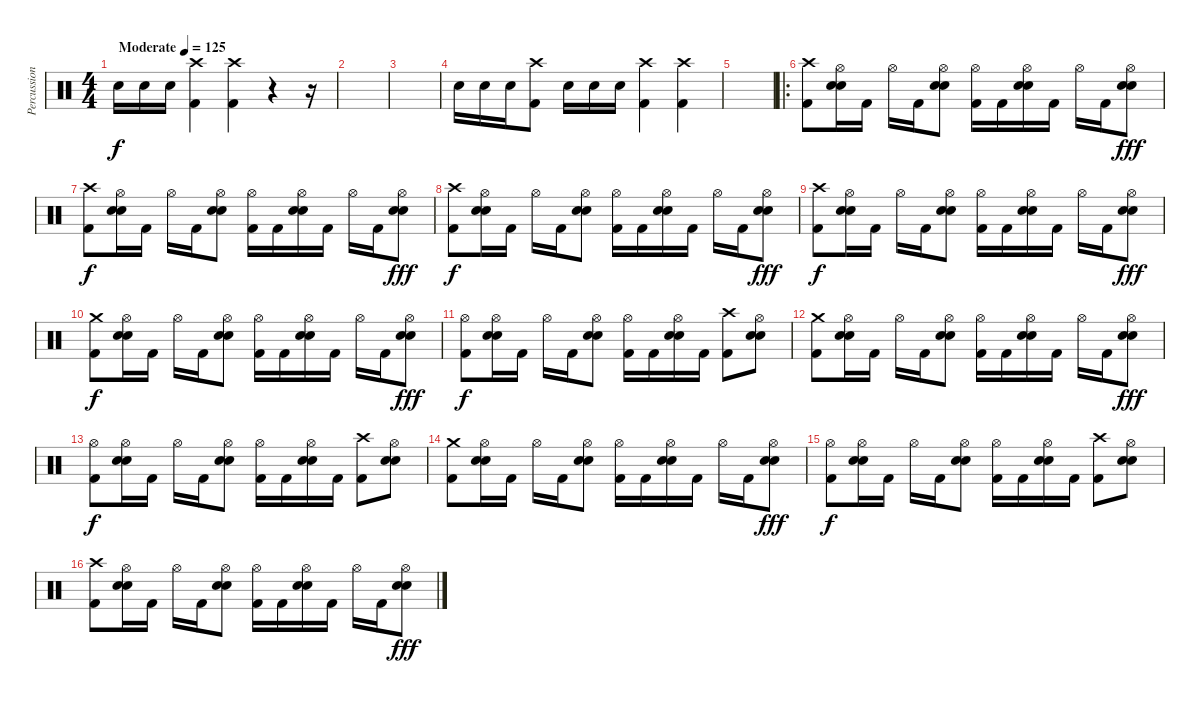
\track ("Percussion" "Percussion") {instrument percussion}
\staff {score}
\articulation defaults
\ts (4 4)
\tempo (125 "Moderate")
\clef neutral
\ks c "Snare (hit) 2".16{dy f} "Snare (hit) 2".16 "Snare (hit) 2".16
("Crash high (hit)" "Kick (hit) 2").4 ("Crash high (hit)" "Kick (hit) 2").4 r.4 r.16 |
|
|
"Snare (hit) 2".16 "Snare (hit) 2".16 "Snare (hit) 2".16 ("Crash high (hit)" "Kick (hit) 2").8 "Snare (hit) 2".16 "Snare (hit) 2".16 "Snare (hit) 2".16 ("Crash high (hit)" "Kick (hit) 2").4 ("Crash high (hit)" "Kick (hit) 2").4 |
|
\ro
("Crash high (hit)" "Kick (hit) 2").8 ("Hi-Hat (open)" "Snare (hit) 2" "Snare (hit) 2").16 "Kick (hit) 2".16 "Hi-Hat (open)".16 "Kick (hit) 2".16 ("Hi-Hat (open)" "Snare (hit) 2" "Snare (hit) 2").8 ("Hi-Hat (open)" "Kick (hit) 2").16 "Kick (hit) 2".16 ("Hi-Hat (open)" "Snare (hit) 2" "Snare (hit) 2").16 "Kick (hit) 2".16 "Hi-Hat (open)".16 "Kick (hit) 2".16 ("Hi-Hat (open)" "Snare (hit) 2" "Snare (hit) 2").8{dy fff} |
("Crash high (hit)" "Kick (hit) 2").8{dy f} ("Hi-Hat (open)" "Snare (hit) 2" "Snare (hit) 2").16 "Kick (hit) 2".16 "Hi-Hat (open)".16 "Kick (hit) 2".16 ("Hi-Hat (open)" "Snare (hit) 2" "Snare (hit) 2").8 ("Hi-Hat (open)" "Kick (hit) 2").16 "Kick (hit) 2".16 ("Hi-Hat (open)" "Snare (hit) 2" "Snare (hit) 2").16 "Kick (hit) 2".16 "Hi-Hat (open)".16 "Kick (hit) 2".16 ("Hi-Hat (open)" "Snare (hit) 2" "Snare (hit) 2").8{dy fff} |
("Crash high (hit)" "Kick (hit) 2").8{dy f} ("Hi-Hat (open)" "Snare (hit) 2" "Snare (hit) 2").16 "Kick (hit) 2".16 "Hi-Hat (open)".16 "Kick (hit) 2".16 ("Hi-Hat (open)" "Snare (hit) 2" "Snare (hit) 2").8 ("Hi-Hat (open)" "Kick (hit) 2").16 "Kick (hit) 2".16 ("Hi-Hat (open)" "Snare (hit) 2" "Snare (hit) 2").16 "Kick (hit) 2".16 "Hi-Hat (open)".16 "Kick (hit) 2".16 ("Hi-Hat (open)" "Snare (hit) 2" "Snare (hit) 2").8{dy fff} |
("Crash high (hit)" "Kick (hit) 2").8{dy f} ("Hi-Hat (open)" "Snare (hit) 2" "Snare (hit) 2").16 "Kick (hit) 2".16 "Hi-Hat (open)".16 "Kick (hit) 2".16 ("Hi-Hat (open)" "Snare (hit) 2" "Snare (hit) 2").8 ("Hi-Hat (open)" "Kick (hit) 2").16 "Kick (hit) 2".16 ("Hi-Hat (open)" "Snare (hit) 2" "Snare (hit) 2").16 "Kick (hit) 2".16 "Hi-Hat (open)".16 "Kick (hit) 2".16 ("Hi-Hat (open)" "Snare (hit) 2" "Snare (hit) 2").8{dy fff} |
("Crash medium (hit)" "Kick (hit) 2").8{dy f} ("Hi-Hat (open)" "Snare (hit) 2" "Snare (hit) 2").16 "Kick (hit) 2".16 "Hi-Hat (open)".16 "Kick (hit) 2".16 ("Hi-Hat (open)" "Snare (hit) 2" "Snare (hit) 2").8 ("Hi-Hat (open)" "Kick (hit) 2").16 "Kick (hit) 2".16 ("Hi-Hat (open)" "Snare (hit) 2" "Snare (hit) 2").16 "Kick (hit) 2".16 "Hi-Hat (open)".16 "Kick (hit) 2".16 ("Hi-Hat (open)" "Snare (hit) 2" "Snare (hit) 2").8{dy fff} |
("Hi-Hat (open)" "Kick (hit) 2").8{dy f} ("Hi-Hat (open)" "Snare (hit) 2" "Snare (hit) 2").16 "Kick (hit) 2".16 "Hi-Hat (open)".16 "Kick (hit) 2".16 ("Hi-Hat (open)" "Snare (hit) 2" "Snare (hit) 2").8 ("Hi-Hat (open)" "Kick (hit) 2").16 "Kick (hit) 2".16 ("Hi-Hat (open)" "Snare (hit) 2" "Snare (hit) 2").16 "Kick (hit) 2".16 ("Crash high (hit)" "Kick (hit) 2").8 ("Hi-Hat (open)" "Snare (hit) 2" "Snare (hit) 2").8 |
("Crash medium (hit)" "Kick (hit) 2").8 ("Hi-Hat (open)" "Snare (hit) 2" "Snare (hit) 2").16 "Kick (hit) 2".16 "Hi-Hat (open)".16 "Kick (hit) 2".16 ("Hi-Hat (open)" "Snare (hit) 2" "Snare (hit) 2").8 ("Hi-Hat (open)" "Kick (hit) 2").16 "Kick (hit) 2".16 ("Hi-Hat (open)" "Snare (hit) 2" "Snare (hit) 2").16 "Kick (hit) 2".16 "Hi-Hat (open)".16 "Kick (hit) 2".16 ("Hi-Hat (open)" "Snare (hit) 2" "Snare (hit) 2").8{dy fff} |
("Hi-Hat (open)" "Kick (hit) 2").8{dy f} ("Hi-Hat (open)" "Snare (hit) 2" "Snare (hit) 2").16 "Kick (hit) 2".16 "Hi-Hat (open)".16 "Kick (hit) 2".16 ("Hi-Hat (open)" "Snare (hit) 2" "Snare (hit) 2").8 ("Hi-Hat (open)" "Kick (hit) 2").16 "Kick (hit) 2".16 ("Hi-Hat (open)" "Snare (hit) 2" "Snare (hit) 2").16 "Kick (hit) 2".16 ("Crash high (hit)" "Kick (hit) 2").8 ("Hi-Hat (open)" "Snare (hit) 2" "Snare (hit) 2").8 |
("Crash medium (hit)" "Kick (hit) 2").8 ("Hi-Hat (open)" "Snare (hit) 2" "Snare (hit) 2").16 "Kick (hit) 2".16 "Hi-Hat (open)".16 "Kick (hit) 2".16 ("Hi-Hat (open)" "Snare (hit) 2" "Snare (hit) 2").8 ("Hi-Hat (open)" "Kick (hit) 2").16 "Kick (hit) 2".16 ("Hi-Hat (open)" "Snare (hit) 2" "Snare (hit) 2").16 "Kick (hit) 2".16 "Hi-Hat (open)".16 "Kick (hit) 2".16 ("Hi-Hat (open)" "Snare (hit) 2" "Snare (hit) 2").8{dy fff} |
("Hi-Hat (open)" "Kick (hit) 2").8{dy f} ("Hi-Hat (open)" "Snare (hit) 2" "Snare (hit) 2").16 "Kick (hit) 2".16 "Hi-Hat (open)".16 "Kick (hit) 2".16 ("Hi-Hat (open)" "Snare (hit) 2" "Snare (hit) 2").8 ("Hi-Hat (open)" "Kick (hit) 2").16 "Kick (hit) 2".16 ("Hi-Hat (open)" "Snare (hit) 2" "Snare (hit) 2").16 "Kick (hit) 2".16 ("Crash high (hit)" "Kick (hit) 2").8 ("Hi-Hat (open)" "Snare (hit) 2" "Snare (hit) 2").8 |
("Crash high (hit)" "Kick (hit) 2").8 ("Hi-Hat (open)" "Snare (hit) 2" "Snare (hit) 2").16 "Kick (hit) 2".16 "Hi-Hat (open)".16 "Kick (hit) 2".16 ("Hi-Hat (open)" "Snare (hit) 2" "Snare (hit) 2").8 ("Hi-Hat (open)" "Kick (hit) 2").16 "Kick (hit) 2".16 ("Hi-Hat (open)" "Snare (hit) 2" "Snare (hit) 2").16 "Kick (hit) 2".16 "Hi-Hat (open)".16 "Kick (hit) 2".16 ("Hi-Hat (open)" "Snare (hit) 2" "Snare (hit) 2").8{dy fff}
